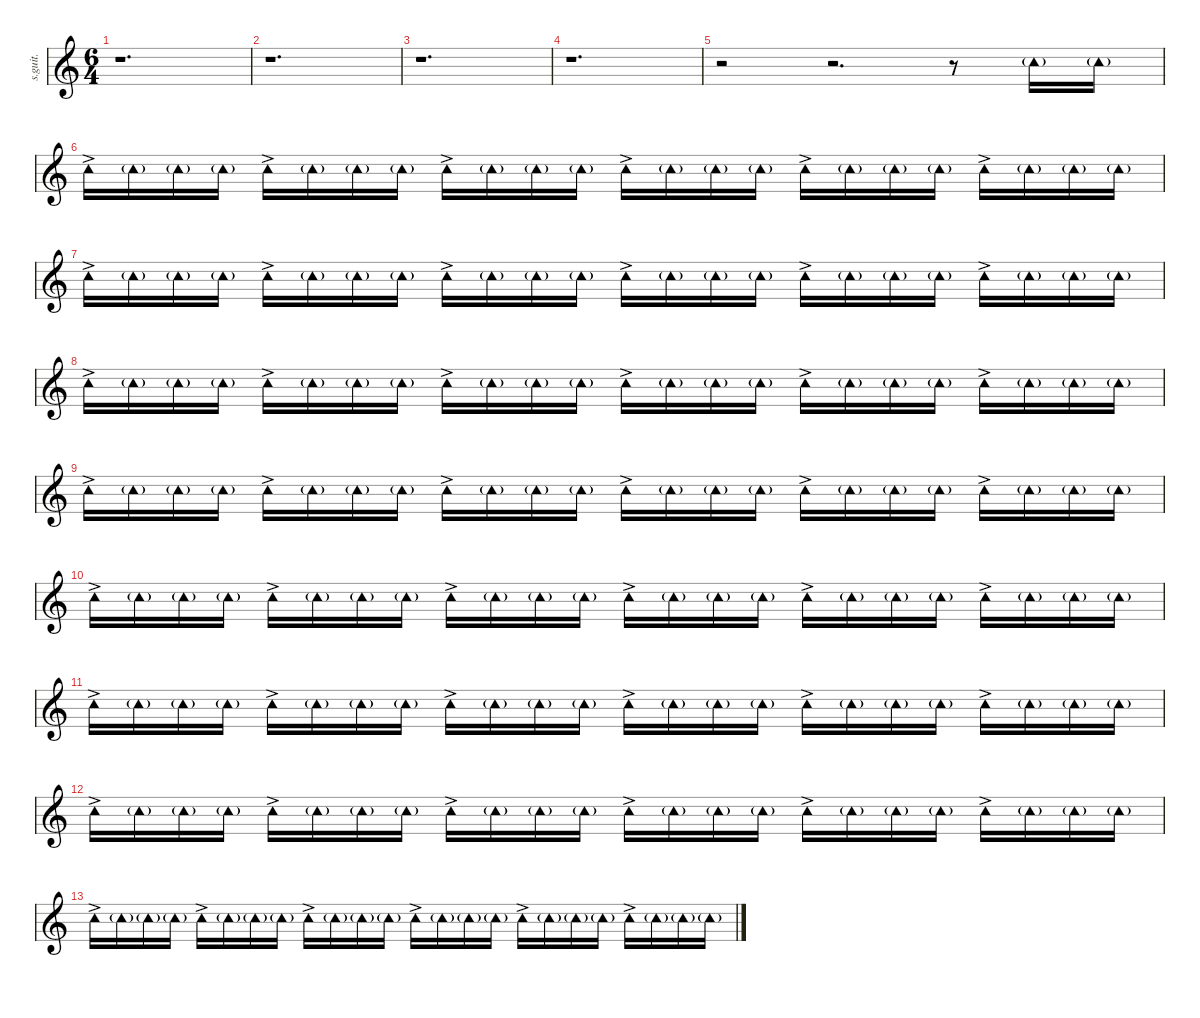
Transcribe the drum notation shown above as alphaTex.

\defaultSystemsLayout 4
\hideDynamics
\bracketExtendMode nobrackets
\track ("Steve Lamos" "s.guit.") {instrument percussion}
\staff {score}
\articulation defaults
\ts (6 4)
\tempo (144 hide)
\clef g2
\ks c
r.1{d dy f} |
r.1{d} |
r.1{d} |
r.1{d} |
r.2 r.2{d} r.8 "Tambourine (hit)"{g}.16{lyrics (0 "") lyrics (1 "") lyrics (2 "") lyrics (3 "") lyrics (4 "") dy mf} "Tambourine (hit)"{g}.16{lyrics (0 "") lyrics (1 "") lyrics (2 "") lyrics (3 "") lyrics (4 "")} |
"Tambourine (hit)"{ac}.16{lyrics (0 "") lyrics (1 "") lyrics (2 "") lyrics (3 "") lyrics (4 "")} "Tambourine (hit)"{g}.16{lyrics (0 "") lyrics (1 "") lyrics (2 "") lyrics (3 "") lyrics (4 "") dy f} "Tambourine (hit)"{g}.16{lyrics (0 "") lyrics (1 "") lyrics (2 "") lyrics (3 "") lyrics (4 "")} "Tambourine (hit)"{g}.16{lyrics (0 "") lyrics (1 "") lyrics (2 "") lyrics (3 "") lyrics (4 "")} "Tambourine (hit)"{ac}.16{lyrics (0 "") lyrics (1 "") lyrics (2 "") lyrics (3 "") lyrics (4 "") dy mf} "Tambourine (hit)"{g}.16{lyrics (0 "") lyrics (1 "") lyrics (2 "") lyrics (3 "") lyrics (4 "") dy f} "Tambourine (hit)"{g}.16{lyrics (0 "") lyrics (1 "") lyrics (2 "") lyrics (3 "") lyrics (4 "")} "Tambourine (hit)"{g}.16{lyrics (0 "") lyrics (1 "") lyrics (2 "") lyrics (3 "") lyrics (4 "")} "Tambourine (hit)"{ac}.16{lyrics (0 "") lyrics (1 "") lyrics (2 "") lyrics (3 "") lyrics (4 "") dy mf} "Tambourine (hit)"{g}.16{lyrics (0 "") lyrics (1 "") lyrics (2 "") lyrics (3 "") lyrics (4 "") dy f} "Tambourine (hit)"{g}.16{lyrics (0 "") lyrics (1 "") lyrics (2 "") lyrics (3 "") lyrics (4 "")} "Tambourine (hit)"{g}.16{lyrics (0 "") lyrics (1 "") lyrics (2 "") lyrics (3 "") lyrics (4 "")} "Tambourine (hit)"{ac}.16{lyrics (0 "") lyrics (1 "") lyrics (2 "") lyrics (3 "") lyrics (4 "") dy mf} "Tambourine (hit)"{g}.16{lyrics (0 "") lyrics (1 "") lyrics (2 "") lyrics (3 "") lyrics (4 "") dy f} "Tambourine (hit)"{g}.16{lyrics (0 "") lyrics (1 "") lyrics (2 "") lyrics (3 "") lyrics (4 "")} "Tambourine (hit)"{g}.16{lyrics (0 "") lyrics (1 "") lyrics (2 "") lyrics (3 "") lyrics (4 "")} "Tambourine (hit)"{ac}.16{lyrics (0 "") lyrics (1 "") lyrics (2 "") lyrics (3 "") lyrics (4 "") dy mf} "Tambourine (hit)"{g}.16{lyrics (0 "") lyrics (1 "") lyrics (2 "") lyrics (3 "") lyrics (4 "") dy f} "Tambourine (hit)"{g}.16{lyrics (0 "") lyrics (1 "") lyrics (2 "") lyrics (3 "") lyrics (4 "")} "Tambourine (hit)"{g}.16{lyrics (0 "") lyrics (1 "") lyrics (2 "") lyrics (3 "") lyrics (4 "")} "Tambourine (hit)"{ac}.16{lyrics (0 "") lyrics (1 "") lyrics (2 "") lyrics (3 "") lyrics (4 "") dy mf} "Tambourine (hit)"{g}.16{lyrics (0 "") lyrics (1 "") lyrics (2 "") lyrics (3 "") lyrics (4 "") dy f} "Tambourine (hit)"{g}.16{lyrics (0 "") lyrics (1 "") lyrics (2 "") lyrics (3 "") lyrics (4 "")} "Tambourine (hit)"{g}.16{lyrics (0 "") lyrics (1 "") lyrics (2 "") lyrics (3 "") lyrics (4 "")} |
"Tambourine (hit)"{ac}.16{lyrics (0 "") lyrics (1 "") lyrics (2 "") lyrics (3 "") lyrics (4 "") dy mf} "Tambourine (hit)"{g}.16{lyrics (0 "") lyrics (1 "") lyrics (2 "") lyrics (3 "") lyrics (4 "") dy f} "Tambourine (hit)"{g}.16{lyrics (0 "") lyrics (1 "") lyrics (2 "") lyrics (3 "") lyrics (4 "")} "Tambourine (hit)"{g}.16{lyrics (0 "") lyrics (1 "") lyrics (2 "") lyrics (3 "") lyrics (4 "")} "Tambourine (hit)"{ac}.16{lyrics (0 "") lyrics (1 "") lyrics (2 "") lyrics (3 "") lyrics (4 "") dy mf} "Tambourine (hit)"{g}.16{lyrics (0 "") lyrics (1 "") lyrics (2 "") lyrics (3 "") lyrics (4 "") dy f} "Tambourine (hit)"{g}.16{lyrics (0 "") lyrics (1 "") lyrics (2 "") lyrics (3 "") lyrics (4 "")} "Tambourine (hit)"{g}.16{lyrics (0 "") lyrics (1 "") lyrics (2 "") lyrics (3 "") lyrics (4 "")} "Tambourine (hit)"{ac}.16{lyrics (0 "") lyrics (1 "") lyrics (2 "") lyrics (3 "") lyrics (4 "") dy mf} "Tambourine (hit)"{g}.16{lyrics (0 "") lyrics (1 "") lyrics (2 "") lyrics (3 "") lyrics (4 "") dy f} "Tambourine (hit)"{g}.16{lyrics (0 "") lyrics (1 "") lyrics (2 "") lyrics (3 "") lyrics (4 "")} "Tambourine (hit)"{g}.16{lyrics (0 "") lyrics (1 "") lyrics (2 "") lyrics (3 "") lyrics (4 "")} "Tambourine (hit)"{ac}.16{lyrics (0 "") lyrics (1 "") lyrics (2 "") lyrics (3 "") lyrics (4 "") dy mf} "Tambourine (hit)"{g}.16{lyrics (0 "") lyrics (1 "") lyrics (2 "") lyrics (3 "") lyrics (4 "") dy f} "Tambourine (hit)"{g}.16{lyrics (0 "") lyrics (1 "") lyrics (2 "") lyrics (3 "") lyrics (4 "")} "Tambourine (hit)"{g}.16{lyrics (0 "") lyrics (1 "") lyrics (2 "") lyrics (3 "") lyrics (4 "")} "Tambourine (hit)"{ac}.16{lyrics (0 "") lyrics (1 "") lyrics (2 "") lyrics (3 "") lyrics (4 "") dy mf} "Tambourine (hit)"{g}.16{lyrics (0 "") lyrics (1 "") lyrics (2 "") lyrics (3 "") lyrics (4 "") dy f} "Tambourine (hit)"{g}.16{lyrics (0 "") lyrics (1 "") lyrics (2 "") lyrics (3 "") lyrics (4 "")} "Tambourine (hit)"{g}.16{lyrics (0 "") lyrics (1 "") lyrics (2 "") lyrics (3 "") lyrics (4 "")} "Tambourine (hit)"{ac}.16{lyrics (0 "") lyrics (1 "") lyrics (2 "") lyrics (3 "") lyrics (4 "") dy mf} "Tambourine (hit)"{g}.16{lyrics (0 "") lyrics (1 "") lyrics (2 "") lyrics (3 "") lyrics (4 "") dy f} "Tambourine (hit)"{g}.16{lyrics (0 "") lyrics (1 "") lyrics (2 "") lyrics (3 "") lyrics (4 "")} "Tambourine (hit)"{g}.16{lyrics (0 "") lyrics (1 "") lyrics (2 "") lyrics (3 "") lyrics (4 "")} |
"Tambourine (hit)"{ac}.16{lyrics (0 "") lyrics (1 "") lyrics (2 "") lyrics (3 "") lyrics (4 "") dy mf} "Tambourine (hit)"{g}.16{lyrics (0 "") lyrics (1 "") lyrics (2 "") lyrics (3 "") lyrics (4 "") dy f} "Tambourine (hit)"{g}.16{lyrics (0 "") lyrics (1 "") lyrics (2 "") lyrics (3 "") lyrics (4 "")} "Tambourine (hit)"{g}.16{lyrics (0 "") lyrics (1 "") lyrics (2 "") lyrics (3 "") lyrics (4 "")} "Tambourine (hit)"{ac}.16{lyrics (0 "") lyrics (1 "") lyrics (2 "") lyrics (3 "") lyrics (4 "") dy mf} "Tambourine (hit)"{g}.16{lyrics (0 "") lyrics (1 "") lyrics (2 "") lyrics (3 "") lyrics (4 "") dy f} "Tambourine (hit)"{g}.16{lyrics (0 "") lyrics (1 "") lyrics (2 "") lyrics (3 "") lyrics (4 "")} "Tambourine (hit)"{g}.16{lyrics (0 "") lyrics (1 "") lyrics (2 "") lyrics (3 "") lyrics (4 "")} "Tambourine (hit)"{ac}.16{lyrics (0 "") lyrics (1 "") lyrics (2 "") lyrics (3 "") lyrics (4 "") dy mf} "Tambourine (hit)"{g}.16{lyrics (0 "") lyrics (1 "") lyrics (2 "") lyrics (3 "") lyrics (4 "") dy f} "Tambourine (hit)"{g}.16{lyrics (0 "") lyrics (1 "") lyrics (2 "") lyrics (3 "") lyrics (4 "")} "Tambourine (hit)"{g}.16{lyrics (0 "") lyrics (1 "") lyrics (2 "") lyrics (3 "") lyrics (4 "")} "Tambourine (hit)"{ac}.16{lyrics (0 "") lyrics (1 "") lyrics (2 "") lyrics (3 "") lyrics (4 "") dy mf} "Tambourine (hit)"{g}.16{lyrics (0 "") lyrics (1 "") lyrics (2 "") lyrics (3 "") lyrics (4 "") dy f} "Tambourine (hit)"{g}.16{lyrics (0 "") lyrics (1 "") lyrics (2 "") lyrics (3 "") lyrics (4 "")} "Tambourine (hit)"{g}.16{lyrics (0 "") lyrics (1 "") lyrics (2 "") lyrics (3 "") lyrics (4 "")} "Tambourine (hit)"{ac}.16{lyrics (0 "") lyrics (1 "") lyrics (2 "") lyrics (3 "") lyrics (4 "") dy mf} "Tambourine (hit)"{g}.16{lyrics (0 "") lyrics (1 "") lyrics (2 "") lyrics (3 "") lyrics (4 "") dy f} "Tambourine (hit)"{g}.16{lyrics (0 "") lyrics (1 "") lyrics (2 "") lyrics (3 "") lyrics (4 "")} "Tambourine (hit)"{g}.16{lyrics (0 "") lyrics (1 "") lyrics (2 "") lyrics (3 "") lyrics (4 "")} "Tambourine (hit)"{ac}.16{lyrics (0 "") lyrics (1 "") lyrics (2 "") lyrics (3 "") lyrics (4 "") dy mf} "Tambourine (hit)"{g}.16{lyrics (0 "") lyrics (1 "") lyrics (2 "") lyrics (3 "") lyrics (4 "") dy f} "Tambourine (hit)"{g}.16{lyrics (0 "") lyrics (1 "") lyrics (2 "") lyrics (3 "") lyrics (4 "")} "Tambourine (hit)"{g}.16{lyrics (0 "") lyrics (1 "") lyrics (2 "") lyrics (3 "") lyrics (4 "")} |
"Tambourine (hit)"{ac}.16{lyrics (0 "") lyrics (1 "") lyrics (2 "") lyrics (3 "") lyrics (4 "") dy mf} "Tambourine (hit)"{g}.16{lyrics (0 "") lyrics (1 "") lyrics (2 "") lyrics (3 "") lyrics (4 "") dy f} "Tambourine (hit)"{g}.16{lyrics (0 "") lyrics (1 "") lyrics (2 "") lyrics (3 "") lyrics (4 "")} "Tambourine (hit)"{g}.16{lyrics (0 "") lyrics (1 "") lyrics (2 "") lyrics (3 "") lyrics (4 "")} "Tambourine (hit)"{ac}.16{lyrics (0 "") lyrics (1 "") lyrics (2 "") lyrics (3 "") lyrics (4 "") dy mf} "Tambourine (hit)"{g}.16{lyrics (0 "") lyrics (1 "") lyrics (2 "") lyrics (3 "") lyrics (4 "") dy f} "Tambourine (hit)"{g}.16{lyrics (0 "") lyrics (1 "") lyrics (2 "") lyrics (3 "") lyrics (4 "")} "Tambourine (hit)"{g}.16{lyrics (0 "") lyrics (1 "") lyrics (2 "") lyrics (3 "") lyrics (4 "")} "Tambourine (hit)"{ac}.16{lyrics (0 "") lyrics (1 "") lyrics (2 "") lyrics (3 "") lyrics (4 "") dy mf} "Tambourine (hit)"{g}.16{lyrics (0 "") lyrics (1 "") lyrics (2 "") lyrics (3 "") lyrics (4 "") dy f} "Tambourine (hit)"{g}.16{lyrics (0 "") lyrics (1 "") lyrics (2 "") lyrics (3 "") lyrics (4 "")} "Tambourine (hit)"{g}.16{lyrics (0 "") lyrics (1 "") lyrics (2 "") lyrics (3 "") lyrics (4 "")} "Tambourine (hit)"{ac}.16{lyrics (0 "") lyrics (1 "") lyrics (2 "") lyrics (3 "") lyrics (4 "") dy mf} "Tambourine (hit)"{g}.16{lyrics (0 "") lyrics (1 "") lyrics (2 "") lyrics (3 "") lyrics (4 "") dy f} "Tambourine (hit)"{g}.16{lyrics (0 "") lyrics (1 "") lyrics (2 "") lyrics (3 "") lyrics (4 "")} "Tambourine (hit)"{g}.16{lyrics (0 "") lyrics (1 "") lyrics (2 "") lyrics (3 "") lyrics (4 "")} "Tambourine (hit)"{ac}.16{lyrics (0 "") lyrics (1 "") lyrics (2 "") lyrics (3 "") lyrics (4 "") dy mf} "Tambourine (hit)"{g}.16{lyrics (0 "") lyrics (1 "") lyrics (2 "") lyrics (3 "") lyrics (4 "") dy f} "Tambourine (hit)"{g}.16{lyrics (0 "") lyrics (1 "") lyrics (2 "") lyrics (3 "") lyrics (4 "")} "Tambourine (hit)"{g}.16{lyrics (0 "") lyrics (1 "") lyrics (2 "") lyrics (3 "") lyrics (4 "")} "Tambourine (hit)"{ac}.16{lyrics (0 "") lyrics (1 "") lyrics (2 "") lyrics (3 "") lyrics (4 "") dy mf} "Tambourine (hit)"{g}.16{lyrics (0 "") lyrics (1 "") lyrics (2 "") lyrics (3 "") lyrics (4 "") dy f} "Tambourine (hit)"{g}.16{lyrics (0 "") lyrics (1 "") lyrics (2 "") lyrics (3 "") lyrics (4 "")} "Tambourine (hit)"{g}.16{lyrics (0 "") lyrics (1 "") lyrics (2 "") lyrics (3 "") lyrics (4 "")} |
"Tambourine (hit)"{ac}.16{lyrics (0 "") lyrics (1 "") lyrics (2 "") lyrics (3 "") lyrics (4 "") dy mf} "Tambourine (hit)"{g}.16{lyrics (0 "") lyrics (1 "") lyrics (2 "") lyrics (3 "") lyrics (4 "") dy f} "Tambourine (hit)"{g}.16{lyrics (0 "") lyrics (1 "") lyrics (2 "") lyrics (3 "") lyrics (4 "")} "Tambourine (hit)"{g}.16{lyrics (0 "") lyrics (1 "") lyrics (2 "") lyrics (3 "") lyrics (4 "")} "Tambourine (hit)"{ac}.16{lyrics (0 "") lyrics (1 "") lyrics (2 "") lyrics (3 "") lyrics (4 "") dy mf} "Tambourine (hit)"{g}.16{lyrics (0 "") lyrics (1 "") lyrics (2 "") lyrics (3 "") lyrics (4 "") dy f} "Tambourine (hit)"{g}.16{lyrics (0 "") lyrics (1 "") lyrics (2 "") lyrics (3 "") lyrics (4 "")} "Tambourine (hit)"{g}.16{lyrics (0 "") lyrics (1 "") lyrics (2 "") lyrics (3 "") lyrics (4 "")} "Tambourine (hit)"{ac}.16{lyrics (0 "") lyrics (1 "") lyrics (2 "") lyrics (3 "") lyrics (4 "") dy mf} "Tambourine (hit)"{g}.16{lyrics (0 "") lyrics (1 "") lyrics (2 "") lyrics (3 "") lyrics (4 "") dy f} "Tambourine (hit)"{g}.16{lyrics (0 "") lyrics (1 "") lyrics (2 "") lyrics (3 "") lyrics (4 "")} "Tambourine (hit)"{g}.16{lyrics (0 "") lyrics (1 "") lyrics (2 "") lyrics (3 "") lyrics (4 "")} "Tambourine (hit)"{ac}.16{lyrics (0 "") lyrics (1 "") lyrics (2 "") lyrics (3 "") lyrics (4 "") dy mf} "Tambourine (hit)"{g}.16{lyrics (0 "") lyrics (1 "") lyrics (2 "") lyrics (3 "") lyrics (4 "") dy f} "Tambourine (hit)"{g}.16{lyrics (0 "") lyrics (1 "") lyrics (2 "") lyrics (3 "") lyrics (4 "")} "Tambourine (hit)"{g}.16{lyrics (0 "") lyrics (1 "") lyrics (2 "") lyrics (3 "") lyrics (4 "")} "Tambourine (hit)"{ac}.16{lyrics (0 "") lyrics (1 "") lyrics (2 "") lyrics (3 "") lyrics (4 "") dy mf} "Tambourine (hit)"{g}.16{lyrics (0 "") lyrics (1 "") lyrics (2 "") lyrics (3 "") lyrics (4 "") dy f} "Tambourine (hit)"{g}.16{lyrics (0 "") lyrics (1 "") lyrics (2 "") lyrics (3 "") lyrics (4 "")} "Tambourine (hit)"{g}.16{lyrics (0 "") lyrics (1 "") lyrics (2 "") lyrics (3 "") lyrics (4 "")} "Tambourine (hit)"{ac}.16{lyrics (0 "") lyrics (1 "") lyrics (2 "") lyrics (3 "") lyrics (4 "") dy mf} "Tambourine (hit)"{g}.16{lyrics (0 "") lyrics (1 "") lyrics (2 "") lyrics (3 "") lyrics (4 "") dy f} "Tambourine (hit)"{g}.16{lyrics (0 "") lyrics (1 "") lyrics (2 "") lyrics (3 "") lyrics (4 "")} "Tambourine (hit)"{g}.16{lyrics (0 "") lyrics (1 "") lyrics (2 "") lyrics (3 "") lyrics (4 "")} |
"Tambourine (hit)"{ac}.16{lyrics (0 "") lyrics (1 "") lyrics (2 "") lyrics (3 "") lyrics (4 "") dy mf} "Tambourine (hit)"{g}.16{lyrics (0 "") lyrics (1 "") lyrics (2 "") lyrics (3 "") lyrics (4 "") dy f} "Tambourine (hit)"{g}.16{lyrics (0 "") lyrics (1 "") lyrics (2 "") lyrics (3 "") lyrics (4 "")} "Tambourine (hit)"{g}.16{lyrics (0 "") lyrics (1 "") lyrics (2 "") lyrics (3 "") lyrics (4 "")} "Tambourine (hit)"{ac}.16{lyrics (0 "") lyrics (1 "") lyrics (2 "") lyrics (3 "") lyrics (4 "") dy mf} "Tambourine (hit)"{g}.16{lyrics (0 "") lyrics (1 "") lyrics (2 "") lyrics (3 "") lyrics (4 "") dy f} "Tambourine (hit)"{g}.16{lyrics (0 "") lyrics (1 "") lyrics (2 "") lyrics (3 "") lyrics (4 "")} "Tambourine (hit)"{g}.16{lyrics (0 "") lyrics (1 "") lyrics (2 "") lyrics (3 "") lyrics (4 "")} "Tambourine (hit)"{ac}.16{lyrics (0 "") lyrics (1 "") lyrics (2 "") lyrics (3 "") lyrics (4 "") dy mf} "Tambourine (hit)"{g}.16{lyrics (0 "") lyrics (1 "") lyrics (2 "") lyrics (3 "") lyrics (4 "") dy f} "Tambourine (hit)"{g}.16{lyrics (0 "") lyrics (1 "") lyrics (2 "") lyrics (3 "") lyrics (4 "")} "Tambourine (hit)"{g}.16{lyrics (0 "") lyrics (1 "") lyrics (2 "") lyrics (3 "") lyrics (4 "")} "Tambourine (hit)"{ac}.16{lyrics (0 "") lyrics (1 "") lyrics (2 "") lyrics (3 "") lyrics (4 "") dy mf} "Tambourine (hit)"{g}.16{lyrics (0 "") lyrics (1 "") lyrics (2 "") lyrics (3 "") lyrics (4 "") dy f} "Tambourine (hit)"{g}.16{lyrics (0 "") lyrics (1 "") lyrics (2 "") lyrics (3 "") lyrics (4 "")} "Tambourine (hit)"{g}.16{lyrics (0 "") lyrics (1 "") lyrics (2 "") lyrics (3 "") lyrics (4 "")} "Tambourine (hit)"{ac}.16{lyrics (0 "") lyrics (1 "") lyrics (2 "") lyrics (3 "") lyrics (4 "") dy mf} "Tambourine (hit)"{g}.16{lyrics (0 "") lyrics (1 "") lyrics (2 "") lyrics (3 "") lyrics (4 "") dy f} "Tambourine (hit)"{g}.16{lyrics (0 "") lyrics (1 "") lyrics (2 "") lyrics (3 "") lyrics (4 "")} "Tambourine (hit)"{g}.16{lyrics (0 "") lyrics (1 "") lyrics (2 "") lyrics (3 "") lyrics (4 "")} "Tambourine (hit)"{ac}.16{lyrics (0 "") lyrics (1 "") lyrics (2 "") lyrics (3 "") lyrics (4 "") dy mf} "Tambourine (hit)"{g}.16{lyrics (0 "") lyrics (1 "") lyrics (2 "") lyrics (3 "") lyrics (4 "") dy f} "Tambourine (hit)"{g}.16{lyrics (0 "") lyrics (1 "") lyrics (2 "") lyrics (3 "") lyrics (4 "")} "Tambourine (hit)"{g}.16{lyrics (0 "") lyrics (1 "") lyrics (2 "") lyrics (3 "") lyrics (4 "")} |
"Tambourine (hit)"{ac}.16{lyrics (0 "") lyrics (1 "") lyrics (2 "") lyrics (3 "") lyrics (4 "") dy mf} "Tambourine (hit)"{g}.16{lyrics (0 "") lyrics (1 "") lyrics (2 "") lyrics (3 "") lyrics (4 "") dy f} "Tambourine (hit)"{g}.16{lyrics (0 "") lyrics (1 "") lyrics (2 "") lyrics (3 "") lyrics (4 "")} "Tambourine (hit)"{g}.16{lyrics (0 "") lyrics (1 "") lyrics (2 "") lyrics (3 "") lyrics (4 "")} "Tambourine (hit)"{ac}.16{lyrics (0 "") lyrics (1 "") lyrics (2 "") lyrics (3 "") lyrics (4 "") dy mf} "Tambourine (hit)"{g}.16{lyrics (0 "") lyrics (1 "") lyrics (2 "") lyrics (3 "") lyrics (4 "") dy f} "Tambourine (hit)"{g}.16{lyrics (0 "") lyrics (1 "") lyrics (2 "") lyrics (3 "") lyrics (4 "")} "Tambourine (hit)"{g}.16{lyrics (0 "") lyrics (1 "") lyrics (2 "") lyrics (3 "") lyrics (4 "")} "Tambourine (hit)"{ac}.16{lyrics (0 "") lyrics (1 "") lyrics (2 "") lyrics (3 "") lyrics (4 "") dy mf} "Tambourine (hit)"{g}.16{lyrics (0 "") lyrics (1 "") lyrics (2 "") lyrics (3 "") lyrics (4 "") dy f} "Tambourine (hit)"{g}.16{lyrics (0 "") lyrics (1 "") lyrics (2 "") lyrics (3 "") lyrics (4 "")} "Tambourine (hit)"{g}.16{lyrics (0 "") lyrics (1 "") lyrics (2 "") lyrics (3 "") lyrics (4 "")} "Tambourine (hit)"{ac}.16{lyrics (0 "") lyrics (1 "") lyrics (2 "") lyrics (3 "") lyrics (4 "") dy mf} "Tambourine (hit)"{g}.16{lyrics (0 "") lyrics (1 "") lyrics (2 "") lyrics (3 "") lyrics (4 "") dy f} "Tambourine (hit)"{g}.16{lyrics (0 "") lyrics (1 "") lyrics (2 "") lyrics (3 "") lyrics (4 "")} "Tambourine (hit)"{g}.16{lyrics (0 "") lyrics (1 "") lyrics (2 "") lyrics (3 "") lyrics (4 "")} "Tambourine (hit)"{ac}.16{lyrics (0 "") lyrics (1 "") lyrics (2 "") lyrics (3 "") lyrics (4 "") dy mf} "Tambourine (hit)"{g}.16{lyrics (0 "") lyrics (1 "") lyrics (2 "") lyrics (3 "") lyrics (4 "") dy f} "Tambourine (hit)"{g}.16{lyrics (0 "") lyrics (1 "") lyrics (2 "") lyrics (3 "") lyrics (4 "")} "Tambourine (hit)"{g}.16{lyrics (0 "") lyrics (1 "") lyrics (2 "") lyrics (3 "") lyrics (4 "")} "Tambourine (hit)"{ac}.16{lyrics (0 "") lyrics (1 "") lyrics (2 "") lyrics (3 "") lyrics (4 "") dy mf} "Tambourine (hit)"{g}.16{lyrics (0 "") lyrics (1 "") lyrics (2 "") lyrics (3 "") lyrics (4 "") dy f} "Tambourine (hit)"{g}.16{lyrics (0 "") lyrics (1 "") lyrics (2 "") lyrics (3 "") lyrics (4 "")} "Tambourine (hit)"{g}.16{lyrics (0 "") lyrics (1 "") lyrics (2 "") lyrics (3 "") lyrics (4 "")} |
"Tambourine (hit)"{ac}.16{lyrics (0 "") lyrics (1 "") lyrics (2 "") lyrics (3 "") lyrics (4 "") dy mf} "Tambourine (hit)"{g}.16{lyrics (0 "") lyrics (1 "") lyrics (2 "") lyrics (3 "") lyrics (4 "") dy f} "Tambourine (hit)"{g}.16{lyrics (0 "") lyrics (1 "") lyrics (2 "") lyrics (3 "") lyrics (4 "")} "Tambourine (hit)"{g}.16{lyrics (0 "") lyrics (1 "") lyrics (2 "") lyrics (3 "") lyrics (4 "")} "Tambourine (hit)"{ac}.16{lyrics (0 "") lyrics (1 "") lyrics (2 "") lyrics (3 "") lyrics (4 "") dy mf} "Tambourine (hit)"{g}.16{lyrics (0 "") lyrics (1 "") lyrics (2 "") lyrics (3 "") lyrics (4 "") dy f} "Tambourine (hit)"{g}.16{lyrics (0 "") lyrics (1 "") lyrics (2 "") lyrics (3 "") lyrics (4 "")} "Tambourine (hit)"{g}.16{lyrics (0 "") lyrics (1 "") lyrics (2 "") lyrics (3 "") lyrics (4 "")} "Tambourine (hit)"{ac}.16{lyrics (0 "") lyrics (1 "") lyrics (2 "") lyrics (3 "") lyrics (4 "") dy mf} "Tambourine (hit)"{g}.16{lyrics (0 "") lyrics (1 "") lyrics (2 "") lyrics (3 "") lyrics (4 "") dy f} "Tambourine (hit)"{g}.16{lyrics (0 "") lyrics (1 "") lyrics (2 "") lyrics (3 "") lyrics (4 "")} "Tambourine (hit)"{g}.16{lyrics (0 "") lyrics (1 "") lyrics (2 "") lyrics (3 "") lyrics (4 "")} "Tambourine (hit)"{ac}.16{lyrics (0 "") lyrics (1 "") lyrics (2 "") lyrics (3 "") lyrics (4 "") dy mf} "Tambourine (hit)"{g}.16{lyrics (0 "") lyrics (1 "") lyrics (2 "") lyrics (3 "") lyrics (4 "") dy f} "Tambourine (hit)"{g}.16{lyrics (0 "") lyrics (1 "") lyrics (2 "") lyrics (3 "") lyrics (4 "")} "Tambourine (hit)"{g}.16{lyrics (0 "") lyrics (1 "") lyrics (2 "") lyrics (3 "") lyrics (4 "")} "Tambourine (hit)"{ac}.16{lyrics (0 "") lyrics (1 "") lyrics (2 "") lyrics (3 "") lyrics (4 "") dy mf} "Tambourine (hit)"{g}.16{lyrics (0 "") lyrics (1 "") lyrics (2 "") lyrics (3 "") lyrics (4 "") dy f} "Tambourine (hit)"{g}.16{lyrics (0 "") lyrics (1 "") lyrics (2 "") lyrics (3 "") lyrics (4 "")} "Tambourine (hit)"{g}.16{lyrics (0 "") lyrics (1 "") lyrics (2 "") lyrics (3 "") lyrics (4 "")} "Tambourine (hit)"{ac}.16{lyrics (0 "") lyrics (1 "") lyrics (2 "") lyrics (3 "") lyrics (4 "") dy mf} "Tambourine (hit)"{g}.16{lyrics (0 "") lyrics (1 "") lyrics (2 "") lyrics (3 "") lyrics (4 "") dy f} "Tambourine (hit)"{g}.16{lyrics (0 "") lyrics (1 "") lyrics (2 "") lyrics (3 "") lyrics (4 "")} "Tambourine (hit)"{g}.16{lyrics (0 "") lyrics (1 "") lyrics (2 "") lyrics (3 "") lyrics (4 "")}
